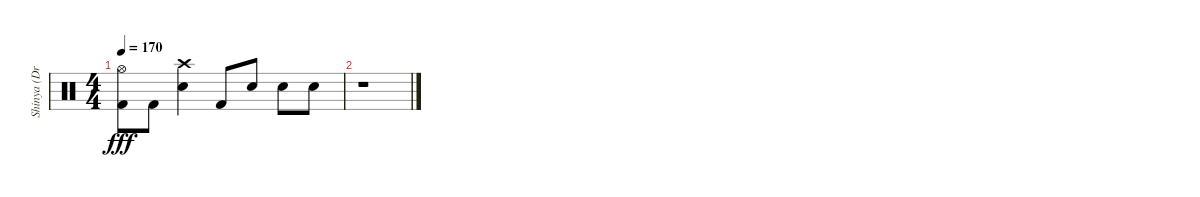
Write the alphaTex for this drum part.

\track ("Shinya (Drums)" "Shinya (Dr") {instrument percussion}
\staff {score}
\articulation defaults
\ts (4 4)
\tempo 170
\clef neutral
\ks c
("Hi-Hat (open)" "Kick (hit) 2").8{dy fff} "Kick (hit) 2".8 ("Crash high (hit)" "Electric Snare (hit)").4 "Kick (hit) 2".8 "Electric Snare (hit)".8 "Electric Snare (hit)".8 "Electric Snare (hit)".8 |
r.1
